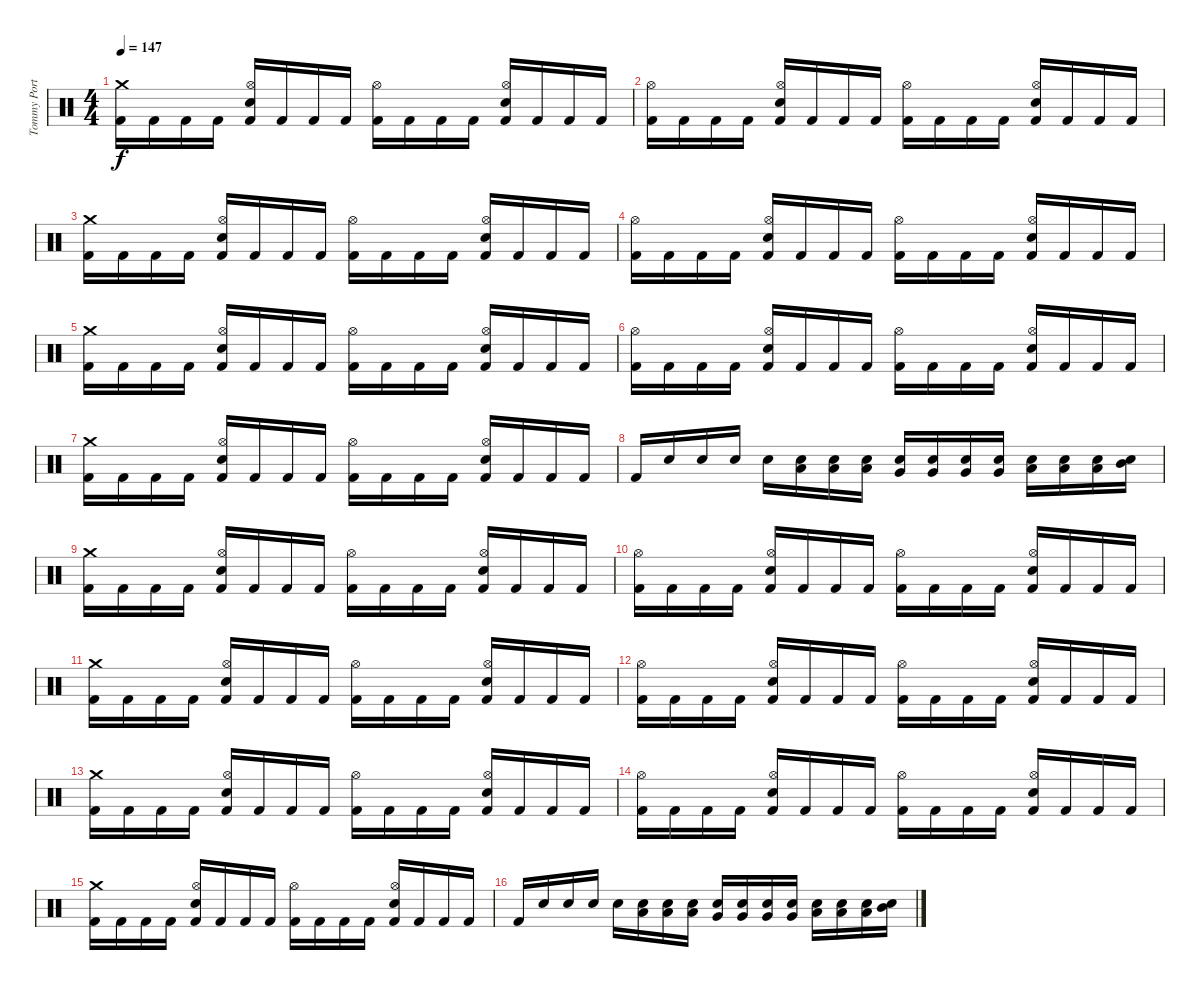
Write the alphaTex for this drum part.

\track ("Tommy Portino" "Tommy Port") {instrument percussion}
\staff {score}
\articulation defaults
\ts (4 4)
\tempo 147
\clef neutral
\ks c
("Crash medium (hit)" "Kick (hit) 2").16{dy f} "Kick (hit) 2".16 "Kick (hit) 2".16 "Kick (hit) 2".16 ("Hi-Hat (open)" "Electric Snare (hit)" "Kick (hit) 2").16 "Kick (hit) 2".16 "Kick (hit) 2".16 "Kick (hit) 2".16 ("Hi-Hat (open)" "Kick (hit) 2").16 "Kick (hit) 2".16 "Kick (hit) 2".16 "Kick (hit) 2".16 ("Hi-Hat (open)" "Electric Snare (hit)" "Kick (hit) 2").16 "Kick (hit) 2".16 "Kick (hit) 2".16 "Kick (hit) 2".16 |
("Hi-Hat (open)" "Kick (hit) 2").16 "Kick (hit) 2".16 "Kick (hit) 2".16 "Kick (hit) 2".16 ("Hi-Hat (open)" "Electric Snare (hit)" "Kick (hit) 2").16 "Kick (hit) 2".16 "Kick (hit) 2".16 "Kick (hit) 2".16 ("Hi-Hat (open)" "Kick (hit) 2").16 "Kick (hit) 2".16 "Kick (hit) 2".16 "Kick (hit) 2".16 ("Hi-Hat (open)" "Electric Snare (hit)" "Kick (hit) 2").16 "Kick (hit) 2".16 "Kick (hit) 2".16 "Kick (hit) 2".16 |
("Crash medium (hit)" "Kick (hit) 2").16 "Kick (hit) 2".16 "Kick (hit) 2".16 "Kick (hit) 2".16 ("Hi-Hat (open)" "Electric Snare (hit)" "Kick (hit) 2").16 "Kick (hit) 2".16 "Kick (hit) 2".16 "Kick (hit) 2".16 ("Hi-Hat (open)" "Kick (hit) 2").16 "Kick (hit) 2".16 "Kick (hit) 2".16 "Kick (hit) 2".16 ("Hi-Hat (open)" "Electric Snare (hit)" "Kick (hit) 2").16 "Kick (hit) 2".16 "Kick (hit) 2".16 "Kick (hit) 2".16 |
("Hi-Hat (open)" "Kick (hit) 2").16 "Kick (hit) 2".16 "Kick (hit) 2".16 "Kick (hit) 2".16 ("Hi-Hat (open)" "Electric Snare (hit)" "Kick (hit) 2").16 "Kick (hit) 2".16 "Kick (hit) 2".16 "Kick (hit) 2".16 ("Hi-Hat (open)" "Kick (hit) 2").16 "Kick (hit) 2".16 "Kick (hit) 2".16 "Kick (hit) 2".16 ("Hi-Hat (open)" "Electric Snare (hit)" "Kick (hit) 2").16 "Kick (hit) 2".16 "Kick (hit) 2".16 "Kick (hit) 2".16 |
("Crash medium (hit)" "Kick (hit) 2").16 "Kick (hit) 2".16 "Kick (hit) 2".16 "Kick (hit) 2".16 ("Hi-Hat (open)" "Electric Snare (hit)" "Kick (hit) 2").16 "Kick (hit) 2".16 "Kick (hit) 2".16 "Kick (hit) 2".16 ("Hi-Hat (open)" "Kick (hit) 2").16 "Kick (hit) 2".16 "Kick (hit) 2".16 "Kick (hit) 2".16 ("Hi-Hat (open)" "Electric Snare (hit)" "Kick (hit) 2").16 "Kick (hit) 2".16 "Kick (hit) 2".16 "Kick (hit) 2".16 |
("Hi-Hat (open)" "Kick (hit) 2").16 "Kick (hit) 2".16 "Kick (hit) 2".16 "Kick (hit) 2".16 ("Hi-Hat (open)" "Electric Snare (hit)" "Kick (hit) 2").16 "Kick (hit) 2".16 "Kick (hit) 2".16 "Kick (hit) 2".16 ("Hi-Hat (open)" "Kick (hit) 2").16 "Kick (hit) 2".16 "Kick (hit) 2".16 "Kick (hit) 2".16 ("Hi-Hat (open)" "Electric Snare (hit)" "Kick (hit) 2").16 "Kick (hit) 2".16 "Kick (hit) 2".16 "Kick (hit) 2".16 |
("Crash medium (hit)" "Kick (hit) 2").16 "Kick (hit) 2".16 "Kick (hit) 2".16 "Kick (hit) 2".16 ("Hi-Hat (open)" "Electric Snare (hit)" "Kick (hit) 2").16 "Kick (hit) 2".16 "Kick (hit) 2".16 "Kick (hit) 2".16 ("Hi-Hat (open)" "Kick (hit) 2").16 "Kick (hit) 2".16 "Kick (hit) 2".16 "Kick (hit) 2".16 ("Hi-Hat (open)" "Electric Snare (hit)" "Kick (hit) 2").16 "Kick (hit) 2".16 "Kick (hit) 2".16 "Kick (hit) 2".16 |
"Kick (hit) 2".16 "Electric Snare (hit)".16 "Electric Snare (hit)".16 "Electric Snare (hit)".16 "Electric Snare (hit)".16 ("Electric Snare (hit)" "Low Floor Tom (hit)").16 ("Electric Snare (hit)" "Low Floor Tom (hit)").16 ("Electric Snare (hit)" "Low Floor Tom (hit)").16 ("Electric Snare (hit)" "Very Low Tom (hit)").16 ("Electric Snare (hit)" "Very Low Tom (hit)").16 ("Electric Snare (hit)" "Very Low Tom (hit)").16 ("Electric Snare (hit)" "Very Low Tom (hit)").16 ("Electric Snare (hit)" "Low Tom (hit)").16 ("Electric Snare (hit)" "Low Tom (hit)").16 ("Electric Snare (hit)" "Low Tom (hit)").16 ("Electric Snare (hit)" "Mid Tom (hit)").16 |
("Crash medium (hit)" "Kick (hit) 2").16 "Kick (hit) 2".16 "Kick (hit) 2".16 "Kick (hit) 2".16 ("Hi-Hat (open)" "Electric Snare (hit)" "Kick (hit) 2").16 "Kick (hit) 2".16 "Kick (hit) 2".16 "Kick (hit) 2".16 ("Hi-Hat (open)" "Kick (hit) 2").16 "Kick (hit) 2".16 "Kick (hit) 2".16 "Kick (hit) 2".16 ("Hi-Hat (open)" "Electric Snare (hit)" "Kick (hit) 2").16 "Kick (hit) 2".16 "Kick (hit) 2".16 "Kick (hit) 2".16 |
("Hi-Hat (open)" "Kick (hit) 2").16 "Kick (hit) 2".16 "Kick (hit) 2".16 "Kick (hit) 2".16 ("Hi-Hat (open)" "Electric Snare (hit)" "Kick (hit) 2").16 "Kick (hit) 2".16 "Kick (hit) 2".16 "Kick (hit) 2".16 ("Hi-Hat (open)" "Kick (hit) 2").16 "Kick (hit) 2".16 "Kick (hit) 2".16 "Kick (hit) 2".16 ("Hi-Hat (open)" "Electric Snare (hit)" "Kick (hit) 2").16 "Kick (hit) 2".16 "Kick (hit) 2".16 "Kick (hit) 2".16 |
("Crash medium (hit)" "Kick (hit) 2").16 "Kick (hit) 2".16 "Kick (hit) 2".16 "Kick (hit) 2".16 ("Hi-Hat (open)" "Electric Snare (hit)" "Kick (hit) 2").16 "Kick (hit) 2".16 "Kick (hit) 2".16 "Kick (hit) 2".16 ("Hi-Hat (open)" "Kick (hit) 2").16 "Kick (hit) 2".16 "Kick (hit) 2".16 "Kick (hit) 2".16 ("Hi-Hat (open)" "Electric Snare (hit)" "Kick (hit) 2").16 "Kick (hit) 2".16 "Kick (hit) 2".16 "Kick (hit) 2".16 |
("Hi-Hat (open)" "Kick (hit) 2").16 "Kick (hit) 2".16 "Kick (hit) 2".16 "Kick (hit) 2".16 ("Hi-Hat (open)" "Electric Snare (hit)" "Kick (hit) 2").16 "Kick (hit) 2".16 "Kick (hit) 2".16 "Kick (hit) 2".16 ("Hi-Hat (open)" "Kick (hit) 2").16 "Kick (hit) 2".16 "Kick (hit) 2".16 "Kick (hit) 2".16 ("Hi-Hat (open)" "Electric Snare (hit)" "Kick (hit) 2").16 "Kick (hit) 2".16 "Kick (hit) 2".16 "Kick (hit) 2".16 |
("Crash medium (hit)" "Kick (hit) 2").16 "Kick (hit) 2".16 "Kick (hit) 2".16 "Kick (hit) 2".16 ("Hi-Hat (open)" "Electric Snare (hit)" "Kick (hit) 2").16 "Kick (hit) 2".16 "Kick (hit) 2".16 "Kick (hit) 2".16 ("Hi-Hat (open)" "Kick (hit) 2").16 "Kick (hit) 2".16 "Kick (hit) 2".16 "Kick (hit) 2".16 ("Hi-Hat (open)" "Electric Snare (hit)" "Kick (hit) 2").16 "Kick (hit) 2".16 "Kick (hit) 2".16 "Kick (hit) 2".16 |
("Hi-Hat (open)" "Kick (hit) 2").16 "Kick (hit) 2".16 "Kick (hit) 2".16 "Kick (hit) 2".16 ("Hi-Hat (open)" "Electric Snare (hit)" "Kick (hit) 2").16 "Kick (hit) 2".16 "Kick (hit) 2".16 "Kick (hit) 2".16 ("Hi-Hat (open)" "Kick (hit) 2").16 "Kick (hit) 2".16 "Kick (hit) 2".16 "Kick (hit) 2".16 ("Hi-Hat (open)" "Electric Snare (hit)" "Kick (hit) 2").16 "Kick (hit) 2".16 "Kick (hit) 2".16 "Kick (hit) 2".16 |
("Crash medium (hit)" "Kick (hit) 2").16 "Kick (hit) 2".16 "Kick (hit) 2".16 "Kick (hit) 2".16 ("Hi-Hat (open)" "Electric Snare (hit)" "Kick (hit) 2").16 "Kick (hit) 2".16 "Kick (hit) 2".16 "Kick (hit) 2".16 ("Hi-Hat (open)" "Kick (hit) 2").16 "Kick (hit) 2".16 "Kick (hit) 2".16 "Kick (hit) 2".16 ("Hi-Hat (open)" "Electric Snare (hit)" "Kick (hit) 2").16 "Kick (hit) 2".16 "Kick (hit) 2".16 "Kick (hit) 2".16 |
"Kick (hit) 2".16 "Electric Snare (hit)".16 "Electric Snare (hit)".16 "Electric Snare (hit)".16 "Electric Snare (hit)".16 ("Electric Snare (hit)" "Low Floor Tom (hit)").16 ("Electric Snare (hit)" "Low Floor Tom (hit)").16 ("Electric Snare (hit)" "Low Floor Tom (hit)").16 ("Electric Snare (hit)" "Very Low Tom (hit)").16 ("Electric Snare (hit)" "Very Low Tom (hit)").16 ("Electric Snare (hit)" "Very Low Tom (hit)").16 ("Electric Snare (hit)" "Very Low Tom (hit)").16 ("Electric Snare (hit)" "Low Tom (hit)").16 ("Electric Snare (hit)" "Low Tom (hit)").16 ("Electric Snare (hit)" "Low Tom (hit)").16 ("Electric Snare (hit)" "Mid Tom (hit)").16
